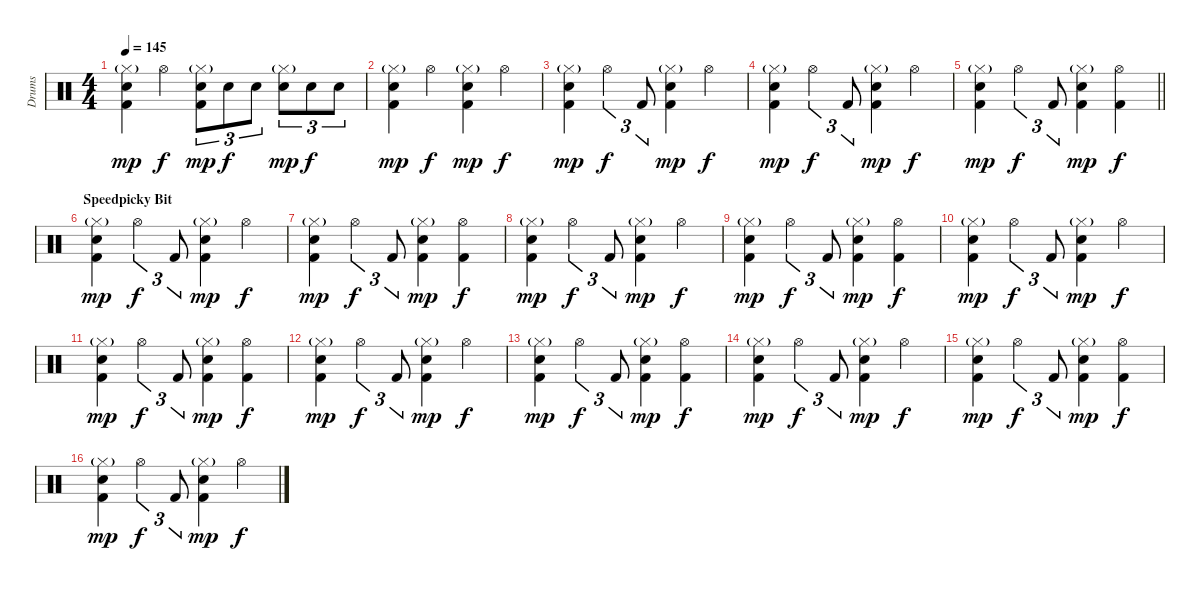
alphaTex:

\track ("Drums" "Drums") {instrument percussion}
\staff {score}
\articulation defaults
\ts (4 4)
\tempo 145
\clef neutral
\ks c
("Hi-Hat (closed)"{g} "Electric Snare (hit)" "Kick (hit) 2").4{dy mp} "Hi-Hat (open)".4{dy f} ("Hi-Hat (closed)"{g} "Electric Snare (hit)" "Kick (hit) 2").8{tu (3 2) dy mp} "Electric Snare (hit)".8{tu (3 2) dy f} "Electric Snare (hit)".8{tu (3 2)} ("Hi-Hat (closed)"{g} "Electric Snare (hit)").8{tu (3 2) dy mp} "Electric Snare (hit)".8{tu (3 2) dy f} "Electric Snare (hit)".8{tu (3 2)} |
("Hi-Hat (closed)"{g} "Electric Snare (hit)" "Kick (hit) 2").4{dy mp} "Hi-Hat (open)".4{dy f} ("Hi-Hat (closed)"{g} "Electric Snare (hit)" "Kick (hit) 2").4{dy mp} "Hi-Hat (open)".4{dy f} |
("Hi-Hat (closed)"{g} "Electric Snare (hit)" "Kick (hit) 2").4{dy mp} "Hi-Hat (open)".4{tu (3 2) dy f} "Kick (hit) 2".8{tu (3 2)} ("Hi-Hat (closed)"{g} "Electric Snare (hit)" "Kick (hit) 2").4{dy mp} "Hi-Hat (open)".4{dy f} |
("Hi-Hat (closed)"{g} "Electric Snare (hit)" "Kick (hit) 2").4{dy mp} "Hi-Hat (open)".4{tu (3 2) dy f} "Kick (hit) 2".8{tu (3 2)} ("Hi-Hat (closed)"{g} "Electric Snare (hit)" "Kick (hit) 2").4{dy mp} "Hi-Hat (open)".4{dy f} |
\barLineRight lightlight
("Hi-Hat (closed)"{g} "Electric Snare (hit)" "Kick (hit) 2").4{dy mp} "Hi-Hat (open)".4{tu (3 2) dy f} "Kick (hit) 2".8{tu (3 2)} ("Hi-Hat (closed)"{g} "Electric Snare (hit)" "Kick (hit) 2").4{dy mp} ("Hi-Hat (open)" "Kick (hit) 2").4{dy f} |
\section ("" "Speedpicky Bit")
("Hi-Hat (closed)"{g} "Electric Snare (hit)" "Kick (hit) 2").4{dy mp} "Hi-Hat (open)".4{tu (3 2) dy f} "Kick (hit) 2".8{tu (3 2)} ("Hi-Hat (closed)"{g} "Electric Snare (hit)" "Kick (hit) 2").4{dy mp} "Hi-Hat (open)".4{dy f} |
("Hi-Hat (closed)"{g} "Electric Snare (hit)" "Kick (hit) 2").4{dy mp} "Hi-Hat (open)".4{tu (3 2) dy f} "Kick (hit) 2".8{tu (3 2)} ("Hi-Hat (closed)"{g} "Electric Snare (hit)" "Kick (hit) 2").4{dy mp} ("Hi-Hat (open)" "Kick (hit) 2").4{dy f} |
("Hi-Hat (closed)"{g} "Electric Snare (hit)" "Kick (hit) 2").4{dy mp} "Hi-Hat (open)".4{tu (3 2) dy f} "Kick (hit) 2".8{tu (3 2)} ("Hi-Hat (closed)"{g} "Electric Snare (hit)" "Kick (hit) 2").4{dy mp} "Hi-Hat (open)".4{dy f} |
("Hi-Hat (closed)"{g} "Electric Snare (hit)" "Kick (hit) 2").4{dy mp} "Hi-Hat (open)".4{tu (3 2) dy f} "Kick (hit) 2".8{tu (3 2)} ("Hi-Hat (closed)"{g} "Electric Snare (hit)" "Kick (hit) 2").4{dy mp} ("Hi-Hat (open)" "Kick (hit) 2").4{dy f} |
("Hi-Hat (closed)"{g} "Electric Snare (hit)" "Kick (hit) 2").4{dy mp} "Hi-Hat (open)".4{tu (3 2) dy f} "Kick (hit) 2".8{tu (3 2)} ("Hi-Hat (closed)"{g} "Electric Snare (hit)" "Kick (hit) 2").4{dy mp} "Hi-Hat (open)".4{dy f} |
("Hi-Hat (closed)"{g} "Electric Snare (hit)" "Kick (hit) 2").4{dy mp} "Hi-Hat (open)".4{tu (3 2) dy f} "Kick (hit) 2".8{tu (3 2)} ("Hi-Hat (closed)"{g} "Electric Snare (hit)" "Kick (hit) 2").4{dy mp} ("Hi-Hat (open)" "Kick (hit) 2").4{dy f} |
("Hi-Hat (closed)"{g} "Electric Snare (hit)" "Kick (hit) 2").4{dy mp} "Hi-Hat (open)".4{tu (3 2) dy f} "Kick (hit) 2".8{tu (3 2)} ("Hi-Hat (closed)"{g} "Electric Snare (hit)" "Kick (hit) 2").4{dy mp} "Hi-Hat (open)".4{dy f} |
("Hi-Hat (closed)"{g} "Electric Snare (hit)" "Kick (hit) 2").4{dy mp} "Hi-Hat (open)".4{tu (3 2) dy f} "Kick (hit) 2".8{tu (3 2)} ("Hi-Hat (closed)"{g} "Electric Snare (hit)" "Kick (hit) 2").4{dy mp} ("Hi-Hat (open)" "Kick (hit) 2").4{dy f} |
("Hi-Hat (closed)"{g} "Electric Snare (hit)" "Kick (hit) 2").4{dy mp} "Hi-Hat (open)".4{tu (3 2) dy f} "Kick (hit) 2".8{tu (3 2)} ("Hi-Hat (closed)"{g} "Electric Snare (hit)" "Kick (hit) 2").4{dy mp} "Hi-Hat (open)".4{dy f} |
("Hi-Hat (closed)"{g} "Electric Snare (hit)" "Kick (hit) 2").4{dy mp} "Hi-Hat (open)".4{tu (3 2) dy f} "Kick (hit) 2".8{tu (3 2)} ("Hi-Hat (closed)"{g} "Electric Snare (hit)" "Kick (hit) 2").4{dy mp} ("Hi-Hat (open)" "Kick (hit) 2").4{dy f} |
("Hi-Hat (closed)"{g} "Electric Snare (hit)" "Kick (hit) 2").4{dy mp} "Hi-Hat (open)".4{tu (3 2) dy f} "Kick (hit) 2".8{tu (3 2)} ("Hi-Hat (closed)"{g} "Electric Snare (hit)" "Kick (hit) 2").4{dy mp} "Hi-Hat (open)".4{dy f}
